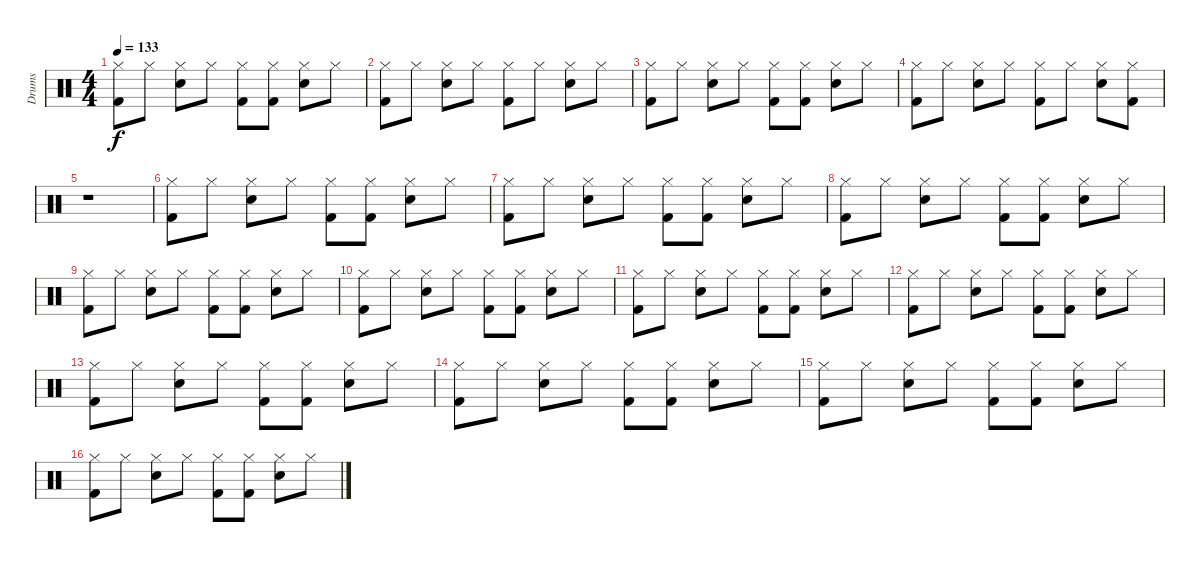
\track ("Drums" "Drums") {instrument percussion}
\staff {score}
\articulation defaults
\ts (4 4)
\tempo 133
\clef neutral
\ks c
("Kick (hit) 2" "Hi-Hat (closed)").8{dy f} "Hi-Hat (closed)".8 ("Snare (hit) 2" "Hi-Hat (closed)").8 "Hi-Hat (closed)".8 ("Kick (hit) 2" "Hi-Hat (closed)").8 ("Kick (hit) 2" "Hi-Hat (closed)").8 ("Snare (hit) 2" "Hi-Hat (closed)").8 "Hi-Hat (closed)".8 |
("Kick (hit) 2" "Hi-Hat (closed)").8 "Hi-Hat (closed)".8 ("Snare (hit) 2" "Hi-Hat (closed)").8 "Hi-Hat (closed)".8 ("Kick (hit) 2" "Hi-Hat (closed)").8 "Hi-Hat (closed)".8 ("Snare (hit) 2" "Hi-Hat (closed)").8 "Hi-Hat (closed)".8 |
("Kick (hit) 2" "Hi-Hat (closed)").8 "Hi-Hat (closed)".8 ("Snare (hit) 2" "Hi-Hat (closed)").8 "Hi-Hat (closed)".8 ("Kick (hit) 2" "Hi-Hat (closed)").8 ("Kick (hit) 2" "Hi-Hat (closed)").8 ("Snare (hit) 2" "Hi-Hat (closed)").8 "Hi-Hat (closed)".8 |
("Kick (hit) 2" "Hi-Hat (closed)").8 "Hi-Hat (closed)".8 ("Snare (hit) 2" "Hi-Hat (closed)").8 "Hi-Hat (closed)".8 ("Kick (hit) 2" "Hi-Hat (closed)").8 "Hi-Hat (closed)".8 ("Snare (hit) 2" "Hi-Hat (closed)").8 ("Kick (hit) 2" "Hi-Hat (closed)").8 |
r.1 |
("Kick (hit) 2" "Hi-Hat (closed)").8 "Hi-Hat (closed)".8 ("Snare (hit) 2" "Hi-Hat (closed)").8 "Hi-Hat (closed)".8 ("Kick (hit) 2" "Hi-Hat (closed)").8 ("Kick (hit) 2" "Hi-Hat (closed)").8 ("Snare (hit) 2" "Hi-Hat (closed)").8 "Hi-Hat (closed)".8 |
("Kick (hit) 2" "Hi-Hat (closed)").8 "Hi-Hat (closed)".8 ("Snare (hit) 2" "Hi-Hat (closed)").8 "Hi-Hat (closed)".8 ("Kick (hit) 2" "Hi-Hat (closed)").8 ("Kick (hit) 2" "Hi-Hat (closed)").8 ("Snare (hit) 2" "Hi-Hat (closed)").8 "Hi-Hat (closed)".8 |
("Kick (hit) 2" "Hi-Hat (closed)").8 "Hi-Hat (closed)".8 ("Snare (hit) 2" "Hi-Hat (closed)").8 "Hi-Hat (closed)".8 ("Kick (hit) 2" "Hi-Hat (closed)").8 ("Kick (hit) 2" "Hi-Hat (closed)").8 ("Snare (hit) 2" "Hi-Hat (closed)").8 "Hi-Hat (closed)".8 |
("Kick (hit) 2" "Hi-Hat (closed)").8 "Hi-Hat (closed)".8 ("Snare (hit) 2" "Hi-Hat (closed)").8 "Hi-Hat (closed)".8 ("Kick (hit) 2" "Hi-Hat (closed)").8 ("Kick (hit) 2" "Hi-Hat (closed)").8 ("Snare (hit) 2" "Hi-Hat (closed)").8 "Hi-Hat (closed)".8 |
("Kick (hit) 2" "Hi-Hat (closed)").8 "Hi-Hat (closed)".8 ("Snare (hit) 2" "Hi-Hat (closed)").8 "Hi-Hat (closed)".8 ("Kick (hit) 2" "Hi-Hat (closed)").8 ("Kick (hit) 2" "Hi-Hat (closed)").8 ("Snare (hit) 2" "Hi-Hat (closed)").8 "Hi-Hat (closed)".8 |
("Kick (hit) 2" "Hi-Hat (closed)").8 "Hi-Hat (closed)".8 ("Snare (hit) 2" "Hi-Hat (closed)").8 "Hi-Hat (closed)".8 ("Kick (hit) 2" "Hi-Hat (closed)").8 ("Kick (hit) 2" "Hi-Hat (closed)").8 ("Snare (hit) 2" "Hi-Hat (closed)").8 "Hi-Hat (closed)".8 |
("Kick (hit) 2" "Hi-Hat (closed)").8 "Hi-Hat (closed)".8 ("Snare (hit) 2" "Hi-Hat (closed)").8 "Hi-Hat (closed)".8 ("Kick (hit) 2" "Hi-Hat (closed)").8 ("Kick (hit) 2" "Hi-Hat (closed)").8 ("Snare (hit) 2" "Hi-Hat (closed)").8 "Hi-Hat (closed)".8 |
("Kick (hit) 2" "Hi-Hat (closed)").8 "Hi-Hat (closed)".8 ("Snare (hit) 2" "Hi-Hat (closed)").8 "Hi-Hat (closed)".8 ("Kick (hit) 2" "Hi-Hat (closed)").8 ("Kick (hit) 2" "Hi-Hat (closed)").8 ("Snare (hit) 2" "Hi-Hat (closed)").8 "Hi-Hat (closed)".8 |
("Kick (hit) 2" "Hi-Hat (closed)").8 "Hi-Hat (closed)".8 ("Snare (hit) 2" "Hi-Hat (closed)").8 "Hi-Hat (closed)".8 ("Kick (hit) 2" "Hi-Hat (closed)").8 ("Kick (hit) 2" "Hi-Hat (closed)").8 ("Snare (hit) 2" "Hi-Hat (closed)").8 "Hi-Hat (closed)".8 |
("Kick (hit) 2" "Hi-Hat (closed)").8 "Hi-Hat (closed)".8 ("Snare (hit) 2" "Hi-Hat (closed)").8 "Hi-Hat (closed)".8 ("Kick (hit) 2" "Hi-Hat (closed)").8 ("Kick (hit) 2" "Hi-Hat (closed)").8 ("Snare (hit) 2" "Hi-Hat (closed)").8 "Hi-Hat (closed)".8 |
("Kick (hit) 2" "Hi-Hat (closed)").8 "Hi-Hat (closed)".8 ("Snare (hit) 2" "Hi-Hat (closed)").8 "Hi-Hat (closed)".8 ("Kick (hit) 2" "Hi-Hat (closed)").8 ("Kick (hit) 2" "Hi-Hat (closed)").8 ("Snare (hit) 2" "Hi-Hat (closed)").8 "Hi-Hat (closed)".8
